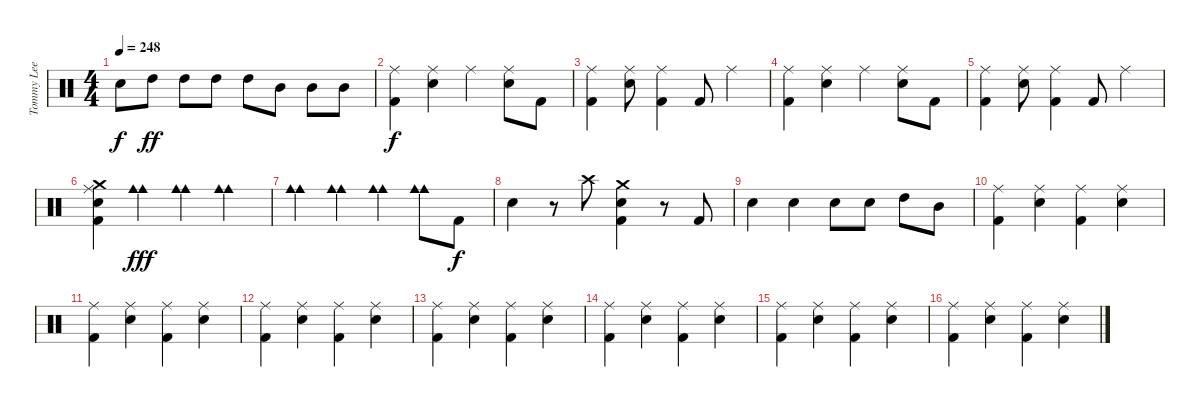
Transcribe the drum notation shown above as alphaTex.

\track ("Tommy Lee" "Tommy Lee") {instrument percussion}
\staff {score}
\articulation defaults
\ts (4 4)
\tempo 248
\clef neutral
\ks c "Electric Snare (hit)".8{dy f} "High Tom (hit)".8{dy ff} "High Tom (hit)".8 "High Tom (hit)".8 "High Tom (hit)".8 "Mid Tom (hit)".8 "Mid Tom (hit)".8 "Mid Tom (hit)".8
|
("Ride (middle)" "Kick (hit) 2").4{dy f} ("Ride (middle)" "Electric Snare (hit)").4 "Ride (middle)".4 ("Ride (middle)" "Electric Snare (hit)").8 "Kick (hit) 2".8 |
("Ride (middle)" "Kick (hit) 2").4 ("Ride (middle)" "Electric Snare (hit)").8 ("Ride (middle)" "Kick (hit) 2").4 "Kick (hit) 2".8 "Ride (middle)".4 |
("Ride (middle)" "Kick (hit) 2").4 ("Ride (middle)" "Electric Snare (hit)").4 "Ride (middle)".4 ("Ride (middle)" "Electric Snare (hit)").8 "Kick (hit) 2".8 |
("Ride (middle)" "Kick (hit) 2").4 ("Ride (middle)" "Electric Snare (hit)").8 ("Ride (middle)" "Kick (hit) 2").4 "Kick (hit) 2".8 "Ride (middle)".4 |
("Crash medium (hit)" "Ride (middle)" "Electric Snare (hit)" "Kick (hit) 2").4 ("Cowbell medium (hit)" "Cowbell medium (hit)").4{dy fff} ("Cowbell medium (hit)" "Cowbell medium (hit)").4 ("Cowbell medium (hit)" "Cowbell medium (hit)").4 |
("Cowbell medium (hit)" "Cowbell medium (hit)").4 ("Cowbell medium (hit)" "Cowbell medium (hit)").4 ("Cowbell medium (hit)" "Cowbell medium (hit)").4 ("Cowbell medium (hit)" "Cowbell medium (hit)").8 "Kick (hit) 2".8{dy f} |
"Electric Snare (hit)".4 r.8 "Crash high (hit)".8 ("Crash medium (hit)" "Electric Snare (hit)" "Kick (hit) 2").4 r.8 "Kick (hit) 2".8 |
"Electric Snare (hit)".4 "Electric Snare (hit)".4 "Electric Snare (hit)".8 "Electric Snare (hit)".8 "High Tom (hit)".8 "Mid Tom (hit)".8 |
("Ride (middle)" "Kick (hit) 2").4 ("Ride (middle)" "Electric Snare (hit)").4 ("Ride (middle)" "Kick (hit) 2").4 ("Ride (middle)" "Electric Snare (hit)").4 |
("Ride (middle)" "Kick (hit) 2").4 ("Ride (middle)" "Electric Snare (hit)").4 ("Ride (middle)" "Kick (hit) 2").4 ("Ride (middle)" "Electric Snare (hit)").4 |
("Ride (middle)" "Kick (hit) 2").4 ("Ride (middle)" "Electric Snare (hit)").4 ("Ride (middle)" "Kick (hit) 2").4 ("Ride (middle)" "Electric Snare (hit)").4 |
("Ride (middle)" "Kick (hit) 2").4 ("Ride (middle)" "Electric Snare (hit)").4 ("Ride (middle)" "Kick (hit) 2").4 ("Ride (middle)" "Electric Snare (hit)").4 |
("Ride (middle)" "Kick (hit) 2").4 ("Ride (middle)" "Electric Snare (hit)").4 ("Ride (middle)" "Kick (hit) 2").4 ("Ride (middle)" "Electric Snare (hit)").4 |
("Ride (middle)" "Kick (hit) 2").4 ("Ride (middle)" "Electric Snare (hit)").4 ("Ride (middle)" "Kick (hit) 2").4 ("Ride (middle)" "Electric Snare (hit)").4 |
("Ride (middle)" "Kick (hit) 2").4 ("Ride (middle)" "Electric Snare (hit)").4 ("Ride (middle)" "Kick (hit) 2").4 ("Ride (middle)" "Electric Snare (hit)").4
